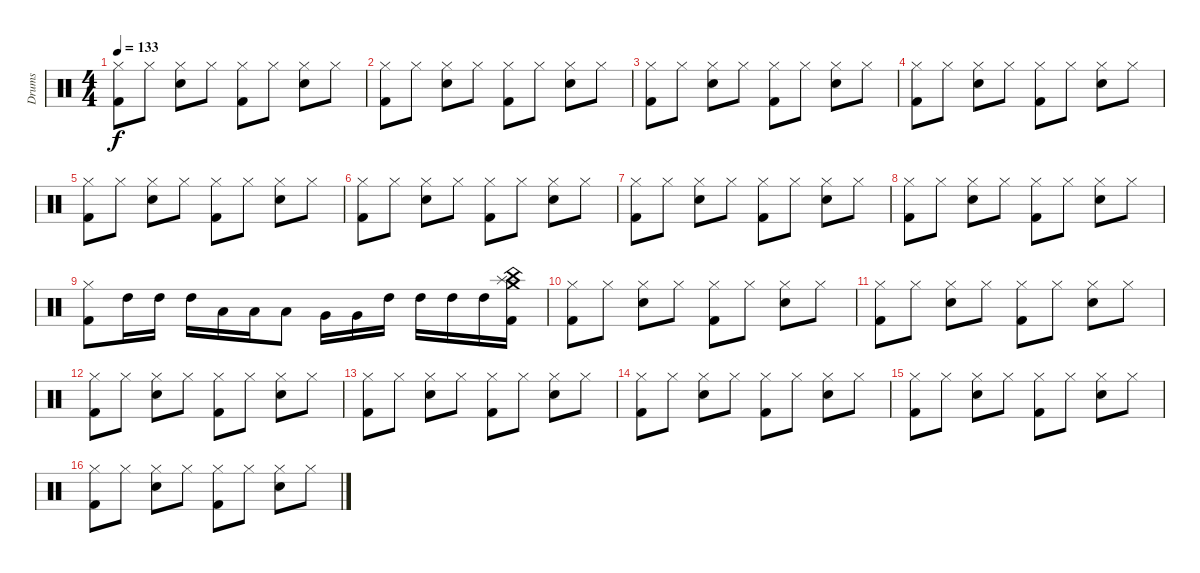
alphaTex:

\track ("Drums" "Drums") {instrument percussion}
\staff {score}
\articulation defaults
\ts (4 4)
\tempo 133
\clef neutral
\ks c
("Kick (hit) 2" "Hi-Hat (closed)").8{dy f} "Hi-Hat (closed)".8 ("Snare (hit) 2" "Hi-Hat (closed)").8 "Hi-Hat (closed)".8 ("Kick (hit) 2" "Hi-Hat (closed)").8 "Hi-Hat (closed)".8 ("Snare (hit) 2" "Hi-Hat (closed)").8 "Hi-Hat (closed)".8 |
("Kick (hit) 2" "Hi-Hat (closed)").8 "Hi-Hat (closed)".8 ("Snare (hit) 2" "Hi-Hat (closed)").8 "Hi-Hat (closed)".8 ("Kick (hit) 2" "Hi-Hat (closed)").8 "Hi-Hat (closed)".8 ("Snare (hit) 2" "Hi-Hat (closed)").8 "Hi-Hat (closed)".8 |
("Kick (hit) 2" "Hi-Hat (closed)").8 "Hi-Hat (closed)".8 ("Snare (hit) 2" "Hi-Hat (closed)").8 "Hi-Hat (closed)".8 ("Kick (hit) 2" "Hi-Hat (closed)").8 "Hi-Hat (closed)".8 ("Snare (hit) 2" "Hi-Hat (closed)").8 "Hi-Hat (closed)".8 |
("Kick (hit) 2" "Hi-Hat (closed)").8 "Hi-Hat (closed)".8 ("Snare (hit) 2" "Hi-Hat (closed)").8 "Hi-Hat (closed)".8 ("Kick (hit) 2" "Hi-Hat (closed)").8 "Hi-Hat (closed)".8 ("Snare (hit) 2" "Hi-Hat (closed)").8 "Hi-Hat (closed)".8 |
("Kick (hit) 2" "Hi-Hat (closed)").8 "Hi-Hat (closed)".8 ("Snare (hit) 2" "Hi-Hat (closed)").8 "Hi-Hat (closed)".8 ("Kick (hit) 2" "Hi-Hat (closed)").8 "Hi-Hat (closed)".8 ("Snare (hit) 2" "Hi-Hat (closed)").8 "Hi-Hat (closed)".8 |
("Kick (hit) 2" "Hi-Hat (closed)").8 "Hi-Hat (closed)".8 ("Snare (hit) 2" "Hi-Hat (closed)").8 "Hi-Hat (closed)".8 ("Kick (hit) 2" "Hi-Hat (closed)").8 "Hi-Hat (closed)".8 ("Snare (hit) 2" "Hi-Hat (closed)").8 "Hi-Hat (closed)".8 |
("Kick (hit) 2" "Hi-Hat (closed)").8 "Hi-Hat (closed)".8 ("Snare (hit) 2" "Hi-Hat (closed)").8 "Hi-Hat (closed)".8 ("Kick (hit) 2" "Hi-Hat (closed)").8 "Hi-Hat (closed)".8 ("Snare (hit) 2" "Hi-Hat (closed)").8 "Hi-Hat (closed)".8 |
("Kick (hit) 2" "Hi-Hat (closed)").8 "Hi-Hat (closed)".8 ("Snare (hit) 2" "Hi-Hat (closed)").8 "Hi-Hat (closed)".8 ("Kick (hit) 2" "Hi-Hat (closed)").8 "Hi-Hat (closed)".8 ("Snare (hit) 2" "Hi-Hat (closed)").8 "Hi-Hat (closed)".8 |
("Kick (hit) 2" "Hi-Hat (closed)").8 "High Tom (hit)".16 "High Tom (hit)".16 "High Tom (hit)".16 "Low Tom (hit)".16 "Low Tom (hit)".16 "Low Tom (hit)".8 "Very Low Tom (hit)".16 "Very Low Tom (hit)".16 "High Tom (hit)".16 "High Tom (hit)".16 "High Tom (hit)".16 "High Tom (hit)".16 ("Kick (hit) 2" "China (hit)" "Splash (hit)" "Crash medium (hit)").16 |
("Kick (hit) 2" "Hi-Hat (closed)").8 "Hi-Hat (closed)".8 ("Snare (hit) 2" "Hi-Hat (closed)").8 "Hi-Hat (closed)".8 ("Kick (hit) 2" "Hi-Hat (closed)").8 "Hi-Hat (closed)".8 ("Snare (hit) 2" "Hi-Hat (closed)").8 "Hi-Hat (closed)".8 |
("Kick (hit) 2" "Hi-Hat (closed)").8 "Hi-Hat (closed)".8 ("Snare (hit) 2" "Hi-Hat (closed)").8 "Hi-Hat (closed)".8 ("Kick (hit) 2" "Hi-Hat (closed)").8 "Hi-Hat (closed)".8 ("Snare (hit) 2" "Hi-Hat (closed)").8 "Hi-Hat (closed)".8 |
("Kick (hit) 2" "Hi-Hat (closed)").8 "Hi-Hat (closed)".8 ("Snare (hit) 2" "Hi-Hat (closed)").8 "Hi-Hat (closed)".8 ("Kick (hit) 2" "Hi-Hat (closed)").8 "Hi-Hat (closed)".8 ("Snare (hit) 2" "Hi-Hat (closed)").8 "Hi-Hat (closed)".8 |
("Kick (hit) 2" "Hi-Hat (closed)").8 "Hi-Hat (closed)".8 ("Snare (hit) 2" "Hi-Hat (closed)").8 "Hi-Hat (closed)".8 ("Kick (hit) 2" "Hi-Hat (closed)").8 "Hi-Hat (closed)".8 ("Snare (hit) 2" "Hi-Hat (closed)").8 "Hi-Hat (closed)".8 |
("Kick (hit) 2" "Hi-Hat (closed)").8 "Hi-Hat (closed)".8 ("Snare (hit) 2" "Hi-Hat (closed)").8 "Hi-Hat (closed)".8 ("Kick (hit) 2" "Hi-Hat (closed)").8 "Hi-Hat (closed)".8 ("Snare (hit) 2" "Hi-Hat (closed)").8 "Hi-Hat (closed)".8 |
("Kick (hit) 2" "Hi-Hat (closed)").8 "Hi-Hat (closed)".8 ("Snare (hit) 2" "Hi-Hat (closed)").8 "Hi-Hat (closed)".8 ("Kick (hit) 2" "Hi-Hat (closed)").8 "Hi-Hat (closed)".8 ("Snare (hit) 2" "Hi-Hat (closed)").8 "Hi-Hat (closed)".8 |
("Kick (hit) 2" "Hi-Hat (closed)").8 "Hi-Hat (closed)".8 ("Snare (hit) 2" "Hi-Hat (closed)").8 "Hi-Hat (closed)".8 ("Kick (hit) 2" "Hi-Hat (closed)").8 "Hi-Hat (closed)".8 ("Snare (hit) 2" "Hi-Hat (closed)").8 "Hi-Hat (closed)".8
